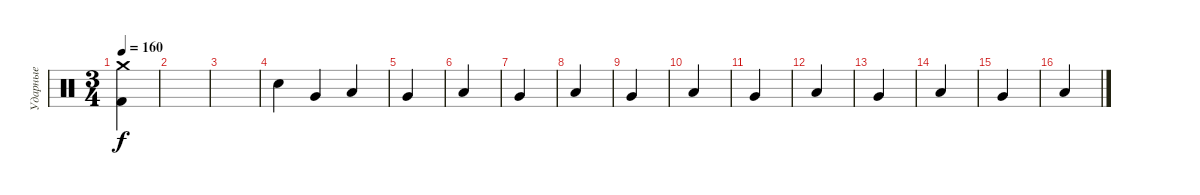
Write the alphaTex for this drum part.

\track ("Ударные" "Ударные") {instrument percussion}
\staff {score}
\articulation defaults
\ts (3 4)
\tempo 160
\clef neutral
\ks c
("Kick (hit) 2" "Crash medium (hit)").4{dy f} |
|
|
"Snare (hit) 2".4 "Very Low Tom (hit)".4 "Low Floor Tom (hit)".4 |
"Very Low Tom (hit)".4 |
"Low Floor Tom (hit)".4 |
"Very Low Tom (hit)".4 |
"Low Floor Tom (hit)".4 |
"Very Low Tom (hit)".4 |
"Low Floor Tom (hit)".4 |
"Very Low Tom (hit)".4 |
"Low Floor Tom (hit)".4 |
"Very Low Tom (hit)".4 |
"Low Floor Tom (hit)".4 |
"Very Low Tom (hit)".4 |
"Low Floor Tom (hit)".4
